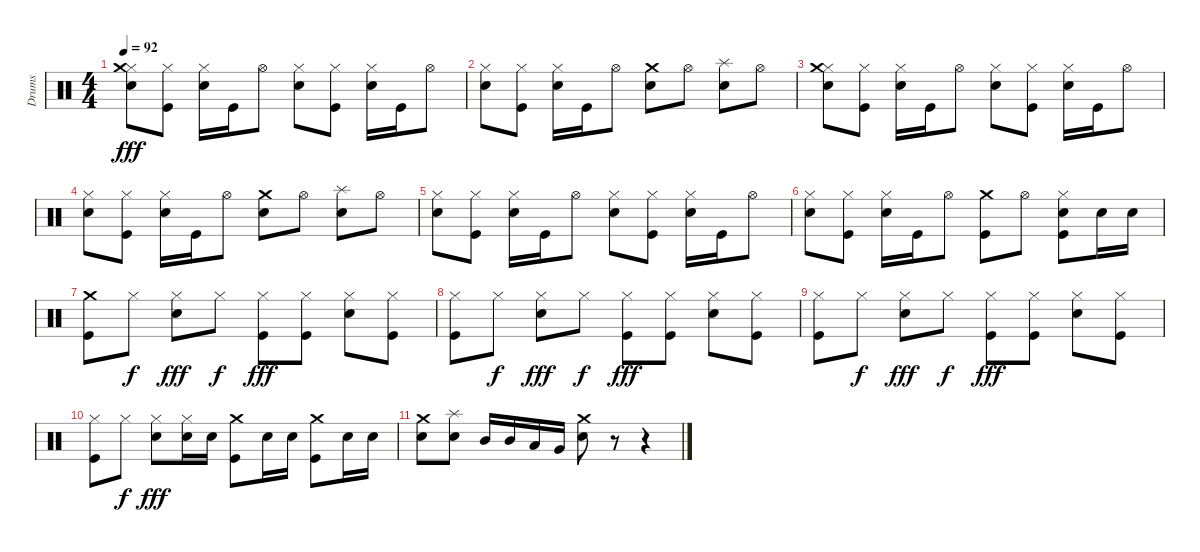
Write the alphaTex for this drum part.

\track ("Drums" "Drums") {instrument percussion}
\staff {score}
\articulation defaults
\ts (4 4)
\tempo 92
\clef neutral
\ks c
("Hi-Hat (closed)" "Snare (hit) 2" "Crash medium (hit)").8{dy fff} ("Hi-Hat (closed)" "Kick (hit)").8 ("Hi-Hat (closed)" "Snare (hit) 2").16 "Kick (hit)".16 "Hi-Hat (open)".8 ("Hi-Hat (closed)" "Snare (hit) 2").8 ("Hi-Hat (closed)" "Kick (hit)").8 ("Hi-Hat (closed)" "Snare (hit) 2").16 "Kick (hit)".16 "Hi-Hat (open)".8 |
("Hi-Hat (closed)" "Snare (hit) 2").8 ("Hi-Hat (closed)" "Kick (hit)").8 ("Hi-Hat (closed)" "Snare (hit) 2").16 "Kick (hit)".16 "Hi-Hat (open)".8 ("Snare (hit) 2" "Crash medium (hit)").8 "Hi-Hat (open)".8 ("Splash (hit)" "Snare (hit) 2").8 "Hi-Hat (open)".8 |
("Hi-Hat (closed)" "Crash medium (hit)" "Snare (hit) 2").8 ("Hi-Hat (closed)" "Kick (hit)").8 ("Hi-Hat (closed)" "Snare (hit) 2").16 "Kick (hit)".16 "Hi-Hat (open)".8 ("Hi-Hat (closed)" "Snare (hit) 2").8 ("Hi-Hat (closed)" "Kick (hit)").8 ("Hi-Hat (closed)" "Snare (hit) 2").16 "Kick (hit)".16 "Hi-Hat (open)".8 |
("Hi-Hat (closed)" "Snare (hit) 2").8 ("Hi-Hat (closed)" "Kick (hit)").8 ("Hi-Hat (closed)" "Snare (hit) 2").16 "Kick (hit)".16 "Hi-Hat (open)".8 ("Snare (hit) 2" "Crash medium (hit)").8 "Hi-Hat (open)".8 ("Splash (hit)" "Snare (hit) 2").8 "Hi-Hat (open)".8 |
("Hi-Hat (closed)" "Snare (hit) 2").8 ("Hi-Hat (closed)" "Kick (hit)").8 ("Hi-Hat (closed)" "Snare (hit) 2").16 "Kick (hit)".16 "Hi-Hat (open)".8 ("Hi-Hat (closed)" "Snare (hit) 2").8 ("Hi-Hat (closed)" "Kick (hit)").8 ("Hi-Hat (closed)" "Snare (hit) 2").16 "Kick (hit)".16 "Hi-Hat (open)".8 |
("Hi-Hat (closed)" "Snare (hit) 2").8 ("Hi-Hat (closed)" "Kick (hit)").8 ("Hi-Hat (closed)" "Snare (hit) 2").16 "Kick (hit)".16 "Hi-Hat (open)".8 ("Crash medium (hit)" "Kick (hit)").8 "Hi-Hat (open)".8 ("Hi-Hat (closed)" "Snare (hit) 2" "Kick (hit)").8 "Snare (hit) 2".16 "Snare (hit) 2".16 |
("Crash medium (hit)" "Kick (hit)").8 "Hi-Hat (closed)".8{dy f} ("Hi-Hat (closed)" "Snare (hit) 2").8{dy fff} "Hi-Hat (closed)".8{dy f} ("Hi-Hat (closed)" "Kick (hit)").8{dy fff} ("Hi-Hat (closed)" "Kick (hit)").8 ("Hi-Hat (closed)" "Snare (hit) 2").8 ("Hi-Hat (closed)" "Kick (hit)").8 |
("Hi-Hat (closed)" "Kick (hit)").8 "Hi-Hat (closed)".8{dy f} ("Hi-Hat (closed)" "Snare (hit) 2").8{dy fff} "Hi-Hat (closed)".8{dy f} ("Hi-Hat (closed)" "Kick (hit)").8{dy fff} ("Hi-Hat (closed)" "Kick (hit)").8 ("Hi-Hat (closed)" "Snare (hit) 2").8 ("Hi-Hat (closed)" "Kick (hit)").8 |
("Hi-Hat (closed)" "Kick (hit)").8 "Hi-Hat (closed)".8{dy f} ("Hi-Hat (closed)" "Snare (hit) 2").8{dy fff} "Hi-Hat (closed)".8{dy f} ("Hi-Hat (closed)" "Kick (hit)").8{dy fff} ("Hi-Hat (closed)" "Kick (hit)").8 ("Hi-Hat (closed)" "Snare (hit) 2").8 ("Hi-Hat (closed)" "Kick (hit)").8 |
("Hi-Hat (closed)" "Kick (hit)").8 "Hi-Hat (closed)".8{dy f} ("Hi-Hat (closed)" "Snare (hit) 2").8{dy fff} ("Hi-Hat (closed)" "Snare (hit) 2").16 "Snare (hit) 2".16 ("Crash medium (hit)" "Kick (hit)").8 "Snare (hit) 2".16 "Snare (hit) 2".16 ("Crash medium (hit)" "Kick (hit)").8 "Snare (hit) 2".16 "Snare (hit) 2".16 |
("Snare (hit) 2" "Crash medium (hit)").8 ("Splash (hit)" "Snare (hit) 2").8 "Mid Tom (hit)".16 "Mid Tom (hit)".16 "Low Tom (hit)".16 "Very Low Tom (hit)".16 ("Snare (hit) 2" "Crash medium (hit)").8 r.8 r.4
